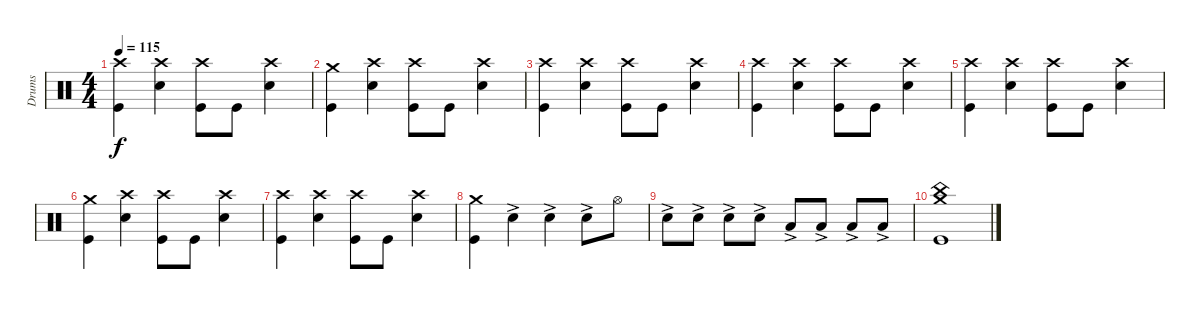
\track ("Drums" "Drums") {instrument percussion}
\staff {score}
\articulation defaults
\ts (4 4)
\tempo 115
\clef neutral
\ks c
("Crash high (hit)" "Kick (hit)").4{dy f} ("Crash high (hit)" "Snare (hit) 2").4 ("Crash high (hit)" "Kick (hit)").8 "Kick (hit)".8 ("Crash high (hit)" "Snare (hit) 2").4 |
("Crash medium (hit)" "Kick (hit)").4 ("Crash high (hit)" "Snare (hit) 2").4 ("Crash high (hit)" "Kick (hit)").8 "Kick (hit)".8 ("Crash high (hit)" "Snare (hit) 2").4 |
("Crash high (hit)" "Kick (hit)").4 ("Crash high (hit)" "Snare (hit) 2").4 ("Crash high (hit)" "Kick (hit)").8 "Kick (hit)".8 ("Crash high (hit)" "Snare (hit) 2").4 |
("Crash high (hit)" "Kick (hit)").4 ("Crash high (hit)" "Snare (hit) 2").4 ("Crash high (hit)" "Kick (hit)").8 "Kick (hit)".8 ("Crash high (hit)" "Snare (hit) 2").4 |
("Crash high (hit)" "Kick (hit)").4 ("Crash high (hit)" "Snare (hit) 2").4 ("Crash high (hit)" "Kick (hit)").8 "Kick (hit)".8 ("Crash high (hit)" "Snare (hit) 2").4 |
("Crash medium (hit)" "Kick (hit)").4 ("Crash high (hit)" "Snare (hit) 2").4 ("Crash high (hit)" "Kick (hit)").8 "Kick (hit)".8 ("Crash high (hit)" "Snare (hit) 2").4 |
("Crash high (hit)" "Kick (hit)").4 ("Crash high (hit)" "Snare (hit) 2").4 ("Crash high (hit)" "Kick (hit)").8 "Kick (hit)".8 ("Crash high (hit)" "Snare (hit) 2").4 |
("Crash medium (hit)" "Kick (hit)").4 "Snare (hit) 2"{ac}.4 "Snare (hit) 2"{ac}.4 "Snare (hit) 2"{ac}.8 "Hi-Hat (open)".8 |
"Snare (hit) 2"{ac}.8 "Snare (hit) 2"{ac}.8 "Snare (hit) 2"{ac}.8 "Snare (hit) 2"{ac}.8 "Low Tom (hit)"{ac}.8 "Low Tom (hit)"{ac}.8 "Low Tom (hit)"{ac}.8 "Low Tom (hit)"{ac}.8 |
("China (hit)" "Crash medium (hit)" "Kick (hit)").1
